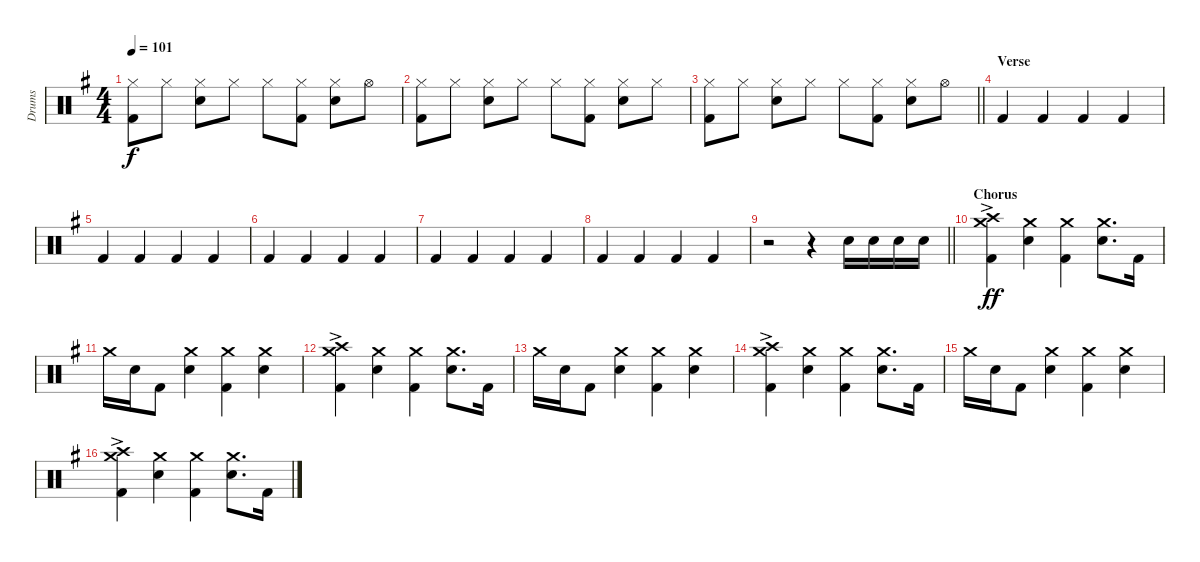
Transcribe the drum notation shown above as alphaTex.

\track ("Drums" "Drums") {instrument percussion}
\staff {score}
\articulation defaults
\ts (4 4)
\tempo 101
\clef neutral
\ks eminor
("Hi-Hat (closed)" "Kick (hit) 2").8{dy f} "Hi-Hat (closed)".8 ("Hi-Hat (closed)" "Snare (hit) 2").8 "Hi-Hat (closed)".8 "Hi-Hat (closed)".8 ("Hi-Hat (closed)" "Kick (hit) 2").8 ("Hi-Hat (closed)" "Snare (hit) 2").8 "Hi-Hat (open)".8 |
("Hi-Hat (closed)" "Kick (hit) 2").8 "Hi-Hat (closed)".8 ("Hi-Hat (closed)" "Snare (hit) 2").8 "Hi-Hat (closed)".8 "Hi-Hat (closed)".8 ("Hi-Hat (closed)" "Kick (hit) 2").8 ("Hi-Hat (closed)" "Snare (hit) 2").8 "Hi-Hat (closed)".8 |
\barLineRight lightlight
("Hi-Hat (closed)" "Kick (hit) 2").8 "Hi-Hat (closed)".8 ("Hi-Hat (closed)" "Snare (hit) 2").8 "Hi-Hat (closed)".8 "Hi-Hat (closed)".8 ("Hi-Hat (closed)" "Kick (hit) 2").8 ("Hi-Hat (closed)" "Snare (hit) 2").8 "Hi-Hat (open)".8 |
\section ("" "Verse")
"Kick (hit) 2".4 "Kick (hit) 2".4 "Kick (hit) 2".4 "Kick (hit) 2".4 |
"Kick (hit) 2".4 "Kick (hit) 2".4 "Kick (hit) 2".4 "Kick (hit) 2".4 |
"Kick (hit) 2".4 "Kick (hit) 2".4 "Kick (hit) 2".4 "Kick (hit) 2".4 |
"Kick (hit) 2".4 "Kick (hit) 2".4 "Kick (hit) 2".4 "Kick (hit) 2".4 |
"Kick (hit) 2".4 "Kick (hit) 2".4 "Kick (hit) 2".4 "Kick (hit) 2".4 |
\barLineRight lightlight
r.2 r.4 "Snare (hit) 2".16 "Snare (hit) 2".16 "Snare (hit) 2".16 "Snare (hit) 2".16 |
\section ("" "Chorus")
("Crash medium (hit)"{ac} "Crash high (hit)"{ac} "Kick (hit) 2").4{dy ff} ("Crash medium (hit)" "Snare (hit) 2").4 ("Crash medium (hit)" "Kick (hit) 2").4 ("Crash medium (hit)" "Snare (hit) 2").8{d} "Kick (hit) 2".16 |
"Crash medium (hit)".16 "Snare (hit) 2".16 "Kick (hit) 2".8 ("Crash medium (hit)" "Snare (hit) 2").4 ("Crash medium (hit)" "Kick (hit) 2").4 ("Crash medium (hit)" "Snare (hit) 2").4 |
("Crash medium (hit)"{ac} "Crash high (hit)"{ac} "Kick (hit) 2").4 ("Crash medium (hit)" "Snare (hit) 2").4 ("Crash medium (hit)" "Kick (hit) 2").4 ("Crash medium (hit)" "Snare (hit) 2").8{d} "Kick (hit) 2".16 |
"Crash medium (hit)".16 "Snare (hit) 2".16 "Kick (hit) 2".8 ("Crash medium (hit)" "Snare (hit) 2").4 ("Crash medium (hit)" "Kick (hit) 2").4 ("Crash medium (hit)" "Snare (hit) 2").4 |
("Crash medium (hit)"{ac} "Crash high (hit)"{ac} "Kick (hit) 2").4 ("Crash medium (hit)" "Snare (hit) 2").4 ("Crash medium (hit)" "Kick (hit) 2").4 ("Crash medium (hit)" "Snare (hit) 2").8{d} "Kick (hit) 2".16 |
"Crash medium (hit)".16 "Snare (hit) 2".16 "Kick (hit) 2".8 ("Crash medium (hit)" "Snare (hit) 2").4 ("Crash medium (hit)" "Kick (hit) 2").4 ("Crash medium (hit)" "Snare (hit) 2").4 |
("Crash medium (hit)"{ac} "Crash high (hit)"{ac} "Kick (hit) 2").4 ("Crash medium (hit)" "Snare (hit) 2").4 ("Crash medium (hit)" "Kick (hit) 2").4 ("Crash medium (hit)" "Snare (hit) 2").8{d} "Kick (hit) 2".16
